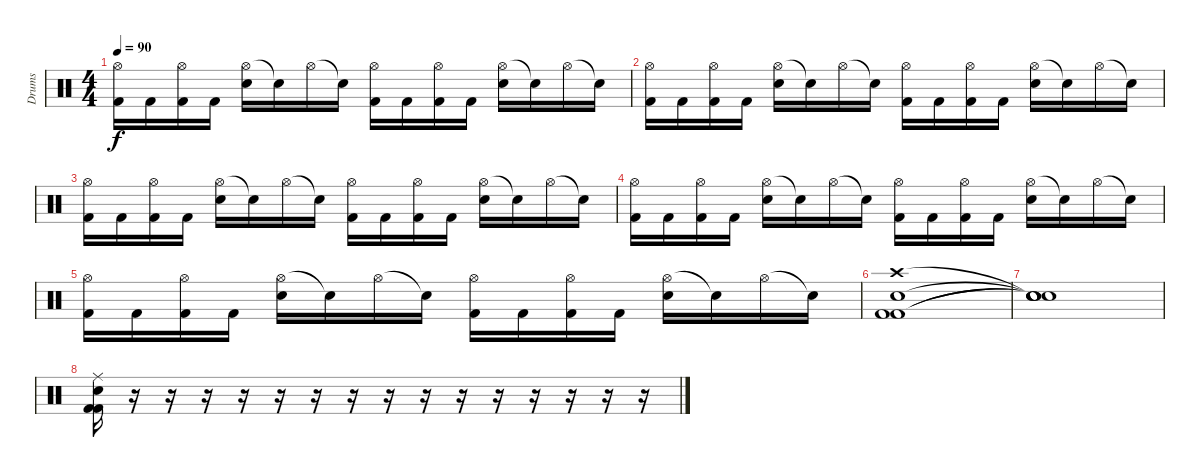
\track ("Drums" "Drums") {instrument percussion}
\staff {score}
\articulation defaults
\ts (4 4)
\tempo 90
\clef neutral
\ks c
("Hi-Hat (open)" "Kick (hit) 2").16{dy f} "Kick (hit) 2".16 ("Hi-Hat (open)" "Kick (hit) 2").16 "Kick (hit) 2".16 ("Hi-Hat (open)" "Electric Snare (hit)").16 "Snare (hit)"{t}.16 "Hi-Hat (open)".16 "Snare (hit)"{t}.16 ("Hi-Hat (open)" "Kick (hit) 2").16 "Kick (hit) 2".16 ("Hi-Hat (open)" "Kick (hit) 2").16 "Kick (hit) 2".16 ("Hi-Hat (open)" "Electric Snare (hit)").16 "Snare (hit)"{t}.16 "Hi-Hat (open)".16 "Snare (hit)"{t}.16 |
("Hi-Hat (open)" "Kick (hit) 2").16 "Kick (hit) 2".16 ("Hi-Hat (open)" "Kick (hit) 2").16 "Kick (hit) 2".16 ("Hi-Hat (open)" "Electric Snare (hit)").16 "Snare (hit)"{t}.16 "Hi-Hat (open)".16 "Snare (hit)"{t}.16 ("Hi-Hat (open)" "Kick (hit) 2").16 "Kick (hit) 2".16 ("Hi-Hat (open)" "Kick (hit) 2").16 "Kick (hit) 2".16 ("Hi-Hat (open)" "Electric Snare (hit)").16 "Snare (hit)"{t}.16 "Hi-Hat (open)".16 "Snare (hit)"{t}.16 |
("Hi-Hat (open)" "Kick (hit) 2").16 "Kick (hit) 2".16 ("Hi-Hat (open)" "Kick (hit) 2").16 "Kick (hit) 2".16 ("Hi-Hat (open)" "Electric Snare (hit)").16 "Snare (hit)"{t}.16 "Hi-Hat (open)".16 "Snare (hit)"{t}.16 ("Hi-Hat (open)" "Kick (hit) 2").16 "Kick (hit) 2".16 ("Hi-Hat (open)" "Kick (hit) 2").16 "Kick (hit) 2".16 ("Hi-Hat (open)" "Electric Snare (hit)").16 "Snare (hit)"{t}.16 "Hi-Hat (open)".16 "Snare (hit)"{t}.16 |
("Hi-Hat (open)" "Kick (hit) 2").16 "Kick (hit) 2".16 ("Hi-Hat (open)" "Kick (hit) 2").16 "Kick (hit) 2".16 ("Hi-Hat (open)" "Electric Snare (hit)").16 "Snare (hit)"{t}.16 "Hi-Hat (open)".16 "Snare (hit)"{t}.16 ("Hi-Hat (open)" "Kick (hit) 2").16 "Kick (hit) 2".16 ("Hi-Hat (open)" "Kick (hit) 2").16 "Kick (hit) 2".16 ("Hi-Hat (open)" "Electric Snare (hit)").16 "Snare (hit)"{t}.16 "Hi-Hat (open)".16 "Snare (hit)"{t}.16 |
("Hi-Hat (open)" "Kick (hit) 2").16 "Kick (hit) 2".16 ("Hi-Hat (open)" "Kick (hit) 2").16 "Kick (hit) 2".16 ("Hi-Hat (open)" "Electric Snare (hit)").16 "Snare (hit)"{t}.16 "Hi-Hat (open)".16 "Snare (hit)"{t}.16 ("Hi-Hat (open)" "Kick (hit) 2").16 "Kick (hit) 2".16 ("Hi-Hat (open)" "Kick (hit) 2").16 "Kick (hit) 2".16 ("Hi-Hat (open)" "Electric Snare (hit)").16 "Snare (hit)"{t}.16 "Hi-Hat (open)".16 "Snare (hit)"{t}.16 |
("Crash high (hit)" "Electric Snare (hit)" "Kick (hit) 2" "Kick (hit) 2").1 |
("Snare (hit)"{t} "Snare (hit)"{t} "Snare (hit)"{t} "Snare (hit)"{t}).1 |
("Ride (middle)" "Electric Snare (hit)" "Kick (hit) 2" "Kick (hit) 2").16 r.16 r.16 r.16 r.16 r.16 r.16 r.16 r.16 r.16 r.16 r.16 r.16 r.16 r.16 r.16
